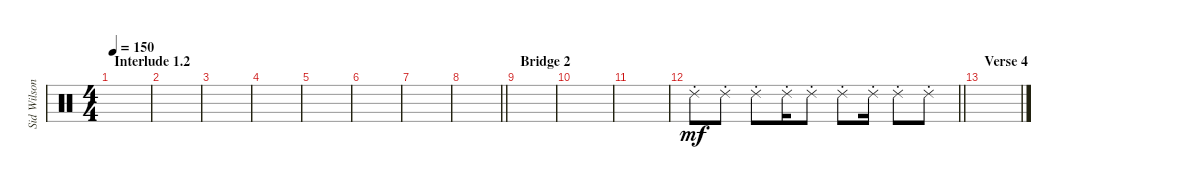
\track ("Sid Wilson" "Sid Wilson") {instrument percussion}
\staff {score}
\articulation defaults
\ts (4 4)
\section ("" "Interlude 1.2")
\tempo 150
\clef neutral
\ks c
|
|
|
|
|
|
|
\barLineRight lightlight
|
\section ("" "Bridge 2")
|
|
|
\barLineRight lightlight "Ride (choke) 2".8{dy mf} "Ride (choke) 2".8 "Ride (choke) 2".8 "Ride (choke) 2".16 "Ride (choke) 2".8 "Ride (choke) 2".8 "Ride (choke) 2".16 "Ride (choke) 2".8 "Ride (choke) 2".8
|
\section ("" "Verse 4")
